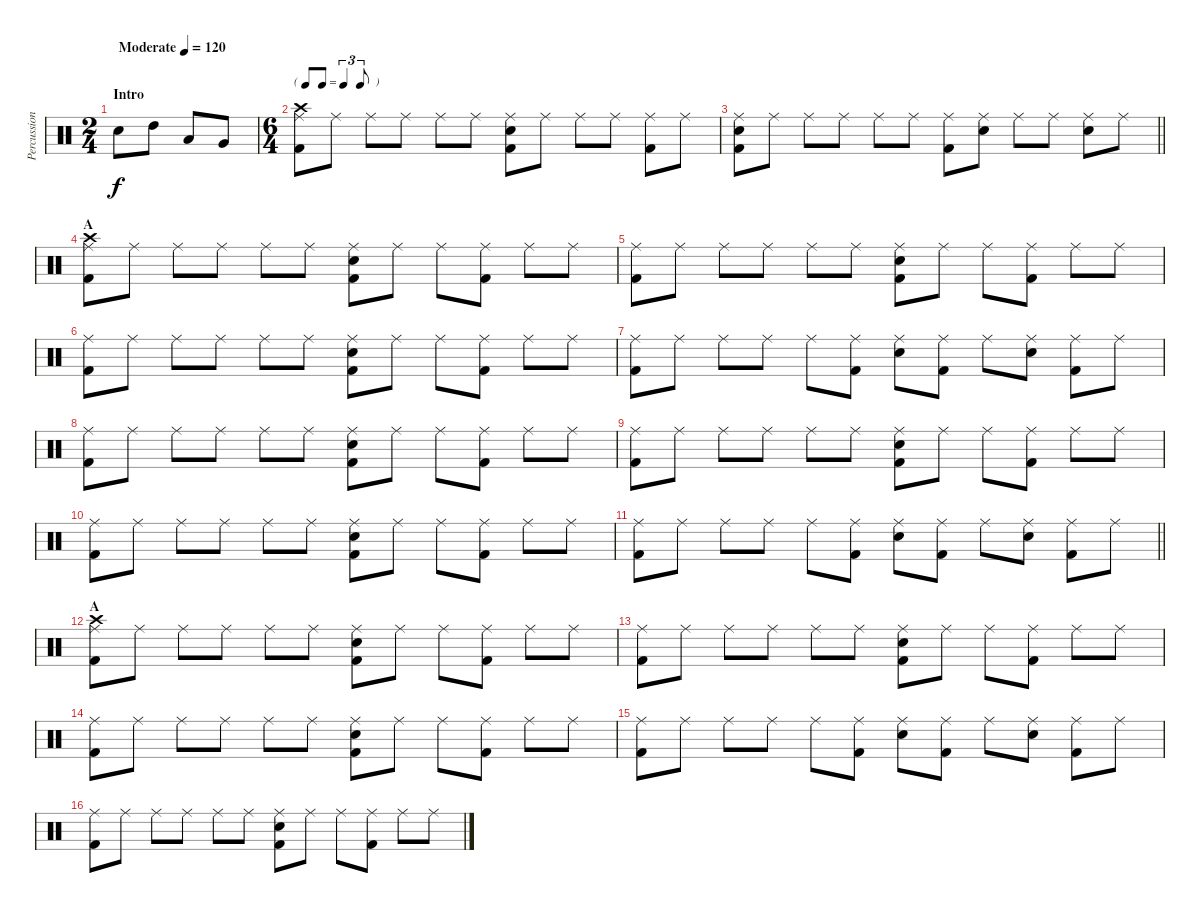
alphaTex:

\track ("Percussion" "Percussion") {instrument percussion}
\staff {score}
\articulation defaults
\ts (2 4)
\section ("" "Intro")
\tempo (120 "Moderate")
\clef neutral
\ks c "Snare (hit) 2".8{dy f} "High Tom (hit)".8 "Low Tom (hit)".8 "Very Low Tom (hit)".8
|
\ts (6 4)
\tf triplet8th
("Ride (middle)" "Crash high (hit)" "Kick (hit) 2").8 "Ride (middle)".8 "Ride (middle)".8 "Ride (middle)".8 "Ride (middle)".8 "Ride (middle)".8 ("Ride (middle)" "Snare (hit) 2" "Kick (hit) 2").8 "Ride (middle)".8 "Ride (middle)".8 "Ride (middle)".8 ("Ride (middle)" "Kick (hit) 2").8 "Ride (middle)".8 |
\barLineRight lightlight
("Ride (middle)" "Snare (hit) 2" "Kick (hit) 2").8 "Ride (middle)".8 "Ride (middle)".8 "Ride (middle)".8 "Ride (middle)".8 "Ride (middle)".8 ("Ride (middle)" "Kick (hit) 2").8 ("Ride (middle)" "Snare (hit) 2").8 "Ride (middle)".8 "Ride (middle)".8 ("Ride (middle)" "Snare (hit) 2").8 "Ride (middle)".8 |
\section ("" "A")
("Ride (middle)" "Crash high (hit)" "Kick (hit) 2").8 "Ride (middle)".8 "Ride (middle)".8 "Ride (middle)".8 "Ride (middle)".8 "Ride (middle)".8 ("Ride (middle)" "Snare (hit) 2" "Kick (hit) 2").8 "Ride (middle)".8 "Ride (middle)".8 ("Ride (middle)" "Kick (hit) 2").8 "Ride (middle)".8 "Ride (middle)".8 |
("Ride (middle)" "Kick (hit) 2").8 "Ride (middle)".8 "Ride (middle)".8 "Ride (middle)".8 "Ride (middle)".8 "Ride (middle)".8 ("Ride (middle)" "Snare (hit) 2" "Kick (hit) 2").8 "Ride (middle)".8 "Ride (middle)".8 ("Ride (middle)" "Kick (hit) 2").8 "Ride (middle)".8 "Ride (middle)".8 |
("Ride (middle)" "Kick (hit) 2").8 "Ride (middle)".8 "Ride (middle)".8 "Ride (middle)".8 "Ride (middle)".8 "Ride (middle)".8 ("Ride (middle)" "Snare (hit) 2" "Kick (hit) 2").8 "Ride (middle)".8 "Ride (middle)".8 ("Ride (middle)" "Kick (hit) 2").8 "Ride (middle)".8 "Ride (middle)".8 |
("Ride (middle)" "Kick (hit) 2").8 "Ride (middle)".8 "Ride (middle)".8 "Ride (middle)".8 "Ride (middle)".8 ("Ride (middle)" "Kick (hit) 2").8 ("Ride (middle)" "Snare (hit) 2").8 ("Ride (middle)" "Kick (hit) 2").8 "Ride (middle)".8 ("Ride (middle)" "Snare (hit) 2").8 ("Ride (middle)" "Kick (hit) 2").8 "Ride (middle)".8 |
("Ride (middle)" "Kick (hit) 2").8 "Ride (middle)".8 "Ride (middle)".8 "Ride (middle)".8 "Ride (middle)".8 "Ride (middle)".8 ("Ride (middle)" "Snare (hit) 2" "Kick (hit) 2").8 "Ride (middle)".8 "Ride (middle)".8 ("Ride (middle)" "Kick (hit) 2").8 "Ride (middle)".8 "Ride (middle)".8 |
("Ride (middle)" "Kick (hit) 2").8 "Ride (middle)".8 "Ride (middle)".8 "Ride (middle)".8 "Ride (middle)".8 "Ride (middle)".8 ("Ride (middle)" "Snare (hit) 2" "Kick (hit) 2").8 "Ride (middle)".8 "Ride (middle)".8 ("Ride (middle)" "Kick (hit) 2").8 "Ride (middle)".8 "Ride (middle)".8 |
("Ride (middle)" "Kick (hit) 2").8 "Ride (middle)".8 "Ride (middle)".8 "Ride (middle)".8 "Ride (middle)".8 "Ride (middle)".8 ("Ride (middle)" "Snare (hit) 2" "Kick (hit) 2").8 "Ride (middle)".8 "Ride (middle)".8 ("Ride (middle)" "Kick (hit) 2").8 "Ride (middle)".8 "Ride (middle)".8 |
\barLineRight lightlight
("Ride (middle)" "Kick (hit) 2").8 "Ride (middle)".8 "Ride (middle)".8 "Ride (middle)".8 "Ride (middle)".8 ("Ride (middle)" "Kick (hit) 2").8 ("Ride (middle)" "Snare (hit) 2").8 ("Ride (middle)" "Kick (hit) 2").8 "Ride (middle)".8 ("Ride (middle)" "Snare (hit) 2").8 ("Ride (middle)" "Kick (hit) 2").8 "Ride (middle)".8 |
\section ("" "A")
("Ride (middle)" "Crash high (hit)" "Kick (hit) 2").8 "Ride (middle)".8 "Ride (middle)".8 "Ride (middle)".8 "Ride (middle)".8 "Ride (middle)".8 ("Ride (middle)" "Snare (hit) 2" "Kick (hit) 2").8 "Ride (middle)".8 "Ride (middle)".8 ("Ride (middle)" "Kick (hit) 2").8 "Ride (middle)".8 "Ride (middle)".8 |
("Ride (middle)" "Kick (hit) 2").8 "Ride (middle)".8 "Ride (middle)".8 "Ride (middle)".8 "Ride (middle)".8 "Ride (middle)".8 ("Ride (middle)" "Snare (hit) 2" "Kick (hit) 2").8 "Ride (middle)".8 "Ride (middle)".8 ("Ride (middle)" "Kick (hit) 2").8 "Ride (middle)".8 "Ride (middle)".8 |
("Ride (middle)" "Kick (hit) 2").8 "Ride (middle)".8 "Ride (middle)".8 "Ride (middle)".8 "Ride (middle)".8 "Ride (middle)".8 ("Ride (middle)" "Snare (hit) 2" "Kick (hit) 2").8 "Ride (middle)".8 "Ride (middle)".8 ("Ride (middle)" "Kick (hit) 2").8 "Ride (middle)".8 "Ride (middle)".8 |
("Ride (middle)" "Kick (hit) 2").8 "Ride (middle)".8 "Ride (middle)".8 "Ride (middle)".8 "Ride (middle)".8 ("Ride (middle)" "Kick (hit) 2").8 ("Ride (middle)" "Snare (hit) 2").8 ("Ride (middle)" "Kick (hit) 2").8 "Ride (middle)".8 ("Ride (middle)" "Snare (hit) 2").8 ("Ride (middle)" "Kick (hit) 2").8 "Ride (middle)".8 |
("Ride (middle)" "Kick (hit) 2").8 "Ride (middle)".8 "Ride (middle)".8 "Ride (middle)".8 "Ride (middle)".8 "Ride (middle)".8 ("Ride (middle)" "Snare (hit) 2" "Kick (hit) 2").8 "Ride (middle)".8 "Ride (middle)".8 ("Ride (middle)" "Kick (hit) 2").8 "Ride (middle)".8 "Ride (middle)".8
